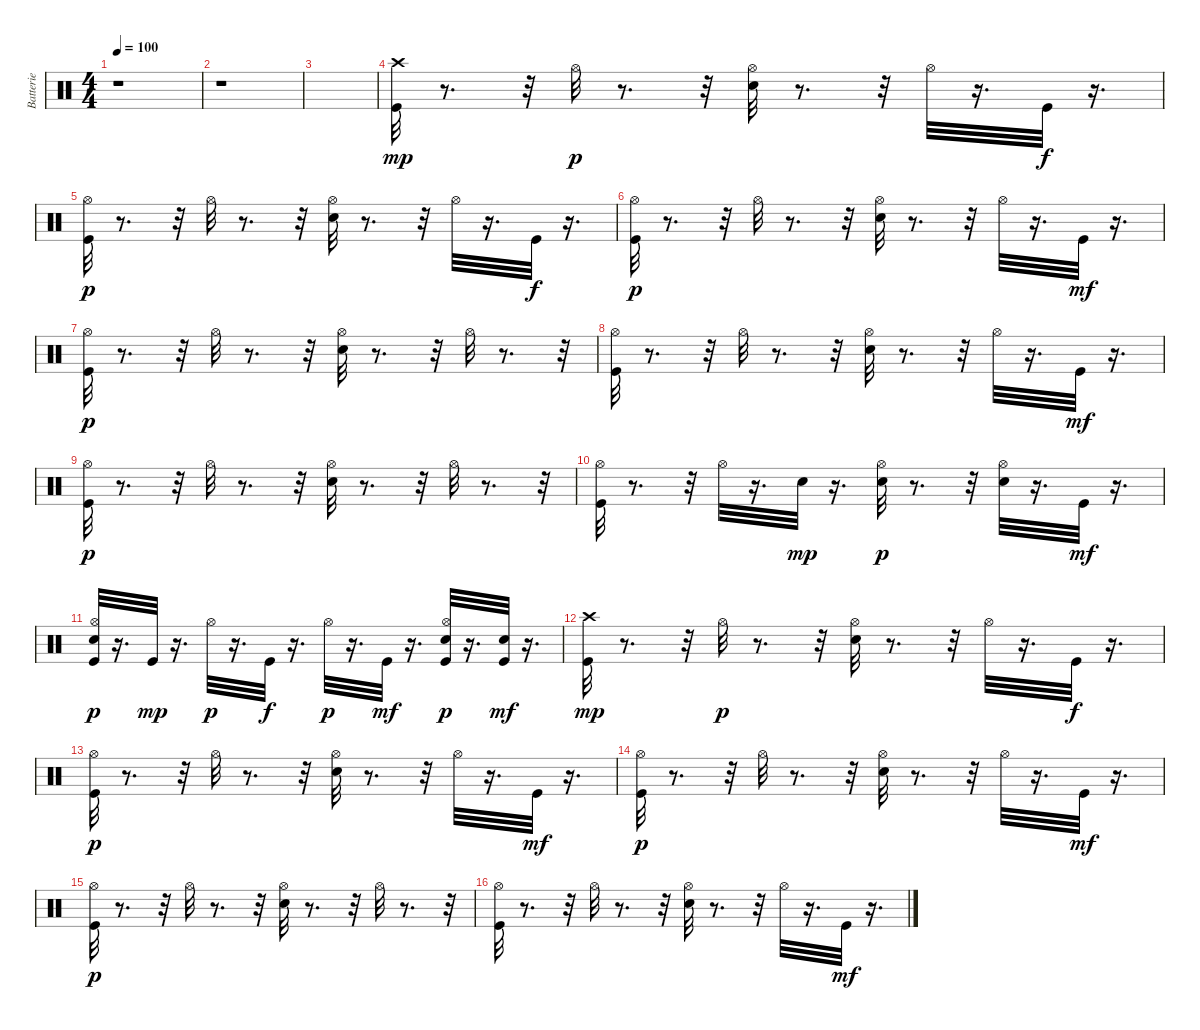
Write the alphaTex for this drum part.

\track ("Batterie" "Batterie") {instrument percussion}
\staff {score}
\articulation defaults
\ts (4 4)
\tempo 100
\clef neutral
\ks c
r.1{dy mp} |
r.1 |
|
("Kick (hit)" "Crash high (hit)").32 r.8{d} r.32 "Hi-Hat (open)".32{dy p} r.8{d} r.32 ("Snare (hit) 2" "Hi-Hat (open)").32 r.8{d} r.32 "Hi-Hat (open)".32 r.16{d} "Kick (hit)".32{dy f} r.16{d} |
("Kick (hit)" "Hi-Hat (open)").32{dy p} r.8{d} r.32 "Hi-Hat (open)".32 r.8{d} r.32 ("Snare (hit) 2" "Hi-Hat (open)").32 r.8{d} r.32 "Hi-Hat (open)".32 r.16{d} "Kick (hit)".32{dy f} r.16{d} |
("Kick (hit)" "Hi-Hat (open)").32{dy p} r.8{d} r.32 "Hi-Hat (open)".32 r.8{d} r.32 ("Snare (hit) 2" "Hi-Hat (open)").32 r.8{d} r.32 "Hi-Hat (open)".32 r.16{d} "Kick (hit)".32{dy mf} r.16{d} |
("Kick (hit)" "Hi-Hat (open)").32{dy p} r.8{d} r.32 "Hi-Hat (open)".32 r.8{d} r.32 ("Snare (hit) 2" "Hi-Hat (open)").32 r.8{d} r.32 "Hi-Hat (open)".32 r.8{d} r.32 |
("Kick (hit)" "Hi-Hat (open)").32 r.8{d} r.32 "Hi-Hat (open)".32 r.8{d} r.32 ("Snare (hit) 2" "Hi-Hat (open)").32 r.8{d} r.32 "Hi-Hat (open)".32 r.16{d} "Kick (hit)".32{dy mf} r.16{d} |
("Kick (hit)" "Hi-Hat (open)").32{dy p} r.8{d} r.32 "Hi-Hat (open)".32 r.8{d} r.32 ("Snare (hit) 2" "Hi-Hat (open)").32 r.8{d} r.32 "Hi-Hat (open)".32 r.8{d} r.32 |
("Kick (hit)" "Hi-Hat (open)").32 r.8{d} r.32 "Hi-Hat (open)".32 r.16{d} "Snare (hit) 2".32{dy mp} r.16{d} ("Snare (hit) 2" "Hi-Hat (open)").32{dy p} r.8{d} r.32 ("Snare (hit) 2" "Hi-Hat (open)").32 r.16{d} "Kick (hit)".32{dy mf} r.16{d} |
("Kick (hit)" "Snare (hit) 2" "Hi-Hat (open)").32{dy p} r.16{d} "Kick (hit)".32{dy mp} r.16{d} "Hi-Hat (open)".32{dy p} r.16{d} "Kick (hit)".32{dy f} r.16{d} "Hi-Hat (open)".32{dy p} r.16{d} "Kick (hit)".32{dy mf} r.16{d} ("Kick (hit)" "Snare (hit) 2" "Hi-Hat (open)").32{dy p} r.16{d} ("Kick (hit)" "Snare (hit) 2").32{dy mf} r.16{d} |
("Kick (hit)" "Crash high (hit)").32{dy mp} r.8{d} r.32 "Hi-Hat (open)".32{dy p} r.8{d} r.32 ("Snare (hit) 2" "Hi-Hat (open)").32 r.8{d} r.32 "Hi-Hat (open)".32 r.16{d} "Kick (hit)".32{dy f} r.16{d} |
("Kick (hit)" "Hi-Hat (open)").32{dy p} r.8{d} r.32 "Hi-Hat (open)".32 r.8{d} r.32 ("Snare (hit) 2" "Hi-Hat (open)").32 r.8{d} r.32 "Hi-Hat (open)".32 r.16{d} "Kick (hit)".32{dy mf} r.16{d} |
("Kick (hit)" "Hi-Hat (open)").32{dy p} r.8{d} r.32 "Hi-Hat (open)".32 r.8{d} r.32 ("Snare (hit) 2" "Hi-Hat (open)").32 r.8{d} r.32 "Hi-Hat (open)".32 r.16{d} "Kick (hit)".32{dy mf} r.16{d} |
("Kick (hit)" "Hi-Hat (open)").32{dy p} r.8{d} r.32 "Hi-Hat (open)".32 r.8{d} r.32 ("Snare (hit) 2" "Hi-Hat (open)").32 r.8{d} r.32 "Hi-Hat (open)".32 r.8{d} r.32 |
("Kick (hit)" "Hi-Hat (open)").32 r.8{d} r.32 "Hi-Hat (open)".32 r.8{d} r.32 ("Snare (hit) 2" "Hi-Hat (open)").32 r.8{d} r.32 "Hi-Hat (open)".32 r.16{d} "Kick (hit)".32{dy mf} r.16{d}
